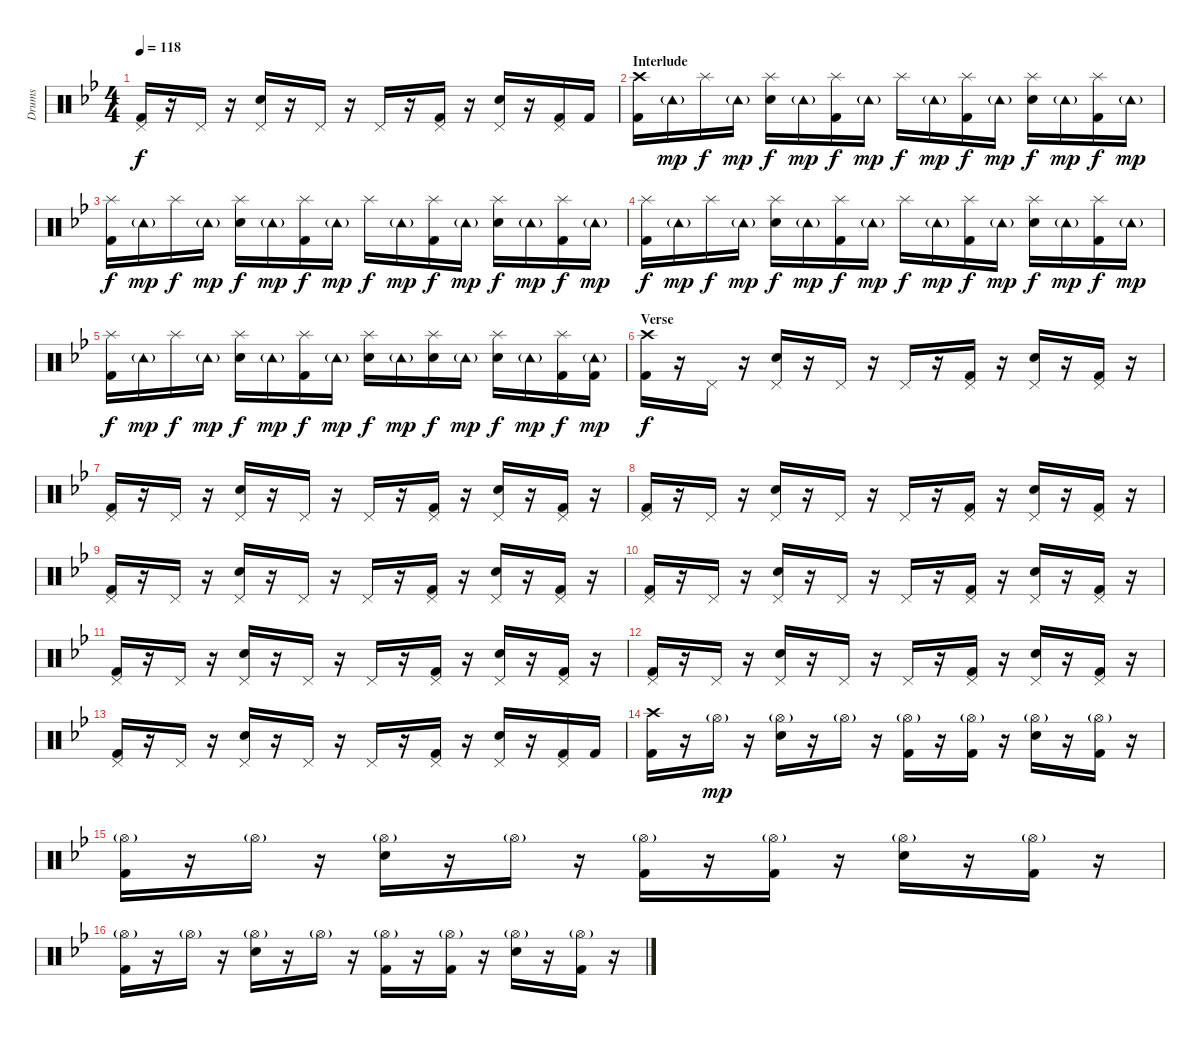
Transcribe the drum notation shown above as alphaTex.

\track ("Drums" "Drums") {instrument percussion}
\staff {score}
\articulation defaults
\ts (4 4)
\tempo 118
\clef neutral
\ks bb
("Pedal Hi-Hat (hit)" "Kick (hit) 2").16{dy f} r.16 "Pedal Hi-Hat (hit)".16 r.16 ("Pedal Hi-Hat (hit)" "Electric Snare (hit)").16 r.16 "Pedal Hi-Hat (hit)".16 r.16 "Pedal Hi-Hat (hit)".16 r.16 ("Pedal Hi-Hat (hit)" "Kick (hit) 2").16 r.16 ("Pedal Hi-Hat (hit)" "Electric Snare (hit)").16 r.16 ("Pedal Hi-Hat (hit)" "Kick (hit) 2").16 "Kick (hit) 2".16 |
\section ("" "Interlude")
("Crash high (hit)" "Kick (hit) 2").16 "Tambourine (hit)"{g}.16{dy mp} "Splash (hit)".16{dy f} "Tambourine (hit)"{g}.16{dy mp} ("Splash (hit)" "Electric Snare (hit)").16{dy f} "Tambourine (hit)"{g}.16{dy mp} ("Splash (hit)" "Kick (hit) 2").16{dy f} "Tambourine (hit)"{g}.16{dy mp} "Splash (hit)".16{dy f} "Tambourine (hit)"{g}.16{dy mp} ("Splash (hit)" "Kick (hit) 2").16{dy f} "Tambourine (hit)"{g}.16{dy mp} ("Splash (hit)" "Electric Snare (hit)").16{dy f} "Tambourine (hit)"{g}.16{dy mp} ("Splash (hit)" "Kick (hit) 2").16{dy f} "Tambourine (hit)"{g}.16{dy mp} |
("Splash (hit)" "Kick (hit) 2").16{dy f} "Tambourine (hit)"{g}.16{dy mp} "Splash (hit)".16{dy f} "Tambourine (hit)"{g}.16{dy mp} ("Splash (hit)" "Electric Snare (hit)").16{dy f} "Tambourine (hit)"{g}.16{dy mp} ("Splash (hit)" "Kick (hit) 2").16{dy f} "Tambourine (hit)"{g}.16{dy mp} "Splash (hit)".16{dy f} "Tambourine (hit)"{g}.16{dy mp} ("Splash (hit)" "Kick (hit) 2").16{dy f} "Tambourine (hit)"{g}.16{dy mp} ("Splash (hit)" "Electric Snare (hit)").16{dy f} "Tambourine (hit)"{g}.16{dy mp} ("Splash (hit)" "Kick (hit) 2").16{dy f} "Tambourine (hit)"{g}.16{dy mp} |
("Splash (hit)" "Kick (hit) 2").16{dy f} "Tambourine (hit)"{g}.16{dy mp} "Splash (hit)".16{dy f} "Tambourine (hit)"{g}.16{dy mp} ("Splash (hit)" "Electric Snare (hit)").16{dy f} "Tambourine (hit)"{g}.16{dy mp} ("Splash (hit)" "Kick (hit) 2").16{dy f} "Tambourine (hit)"{g}.16{dy mp} "Splash (hit)".16{dy f} "Tambourine (hit)"{g}.16{dy mp} ("Splash (hit)" "Kick (hit) 2").16{dy f} "Tambourine (hit)"{g}.16{dy mp} ("Splash (hit)" "Electric Snare (hit)").16{dy f} "Tambourine (hit)"{g}.16{dy mp} ("Splash (hit)" "Kick (hit) 2").16{dy f} "Tambourine (hit)"{g}.16{dy mp} |
("Splash (hit)" "Kick (hit) 2").16{dy f} "Tambourine (hit)"{g}.16{dy mp} "Splash (hit)".16{dy f} "Tambourine (hit)"{g}.16{dy mp} ("Splash (hit)" "Electric Snare (hit)").16{dy f} "Tambourine (hit)"{g}.16{dy mp} ("Splash (hit)" "Kick (hit) 2").16{dy f} "Tambourine (hit)"{g}.16{dy mp} ("Splash (hit)" "Electric Snare (hit)").16{dy f} "Tambourine (hit)"{g}.16{dy mp} ("Splash (hit)" "Electric Snare (hit)").16{dy f} "Tambourine (hit)"{g}.16{dy mp} ("Splash (hit)" "Electric Snare (hit)").16{dy f} "Tambourine (hit)"{g}.16{dy mp} ("Splash (hit)" "Kick (hit) 2").16{dy f} ("Tambourine (hit)"{g} "Kick (hit) 2").16{dy mp} |
\section ("" "Verse")
("Crash high (hit)" "Kick (hit) 2").16{dy f} r.16 "Pedal Hi-Hat (hit)".16 r.16 ("Pedal Hi-Hat (hit)" "Electric Snare (hit)").16 r.16 "Pedal Hi-Hat (hit)".16 r.16 "Pedal Hi-Hat (hit)".16 r.16 ("Pedal Hi-Hat (hit)" "Kick (hit) 2").16 r.16 ("Pedal Hi-Hat (hit)" "Electric Snare (hit)").16 r.16 ("Pedal Hi-Hat (hit)" "Kick (hit) 2").16 r.16 |
("Pedal Hi-Hat (hit)" "Kick (hit) 2").16 r.16 "Pedal Hi-Hat (hit)".16 r.16 ("Pedal Hi-Hat (hit)" "Electric Snare (hit)").16 r.16 "Pedal Hi-Hat (hit)".16 r.16 "Pedal Hi-Hat (hit)".16 r.16 ("Pedal Hi-Hat (hit)" "Kick (hit) 2").16 r.16 ("Pedal Hi-Hat (hit)" "Electric Snare (hit)").16 r.16 ("Pedal Hi-Hat (hit)" "Kick (hit) 2").16 r.16 |
("Pedal Hi-Hat (hit)" "Kick (hit) 2").16 r.16 "Pedal Hi-Hat (hit)".16 r.16 ("Pedal Hi-Hat (hit)" "Electric Snare (hit)").16 r.16 "Pedal Hi-Hat (hit)".16 r.16 "Pedal Hi-Hat (hit)".16 r.16 ("Pedal Hi-Hat (hit)" "Kick (hit) 2").16 r.16 ("Pedal Hi-Hat (hit)" "Electric Snare (hit)").16 r.16 ("Pedal Hi-Hat (hit)" "Kick (hit) 2").16 r.16 |
("Pedal Hi-Hat (hit)" "Kick (hit) 2").16 r.16 "Pedal Hi-Hat (hit)".16 r.16 ("Pedal Hi-Hat (hit)" "Electric Snare (hit)").16 r.16 "Pedal Hi-Hat (hit)".16 r.16 "Pedal Hi-Hat (hit)".16 r.16 ("Pedal Hi-Hat (hit)" "Kick (hit) 2").16 r.16 ("Pedal Hi-Hat (hit)" "Electric Snare (hit)").16 r.16 ("Pedal Hi-Hat (hit)" "Kick (hit) 2").16 r.16 |
("Pedal Hi-Hat (hit)" "Kick (hit) 2").16 r.16 "Pedal Hi-Hat (hit)".16 r.16 ("Pedal Hi-Hat (hit)" "Electric Snare (hit)").16 r.16 "Pedal Hi-Hat (hit)".16 r.16 "Pedal Hi-Hat (hit)".16 r.16 ("Pedal Hi-Hat (hit)" "Kick (hit) 2").16 r.16 ("Pedal Hi-Hat (hit)" "Electric Snare (hit)").16 r.16 ("Pedal Hi-Hat (hit)" "Kick (hit) 2").16 r.16 |
("Pedal Hi-Hat (hit)" "Kick (hit) 2").16 r.16 "Pedal Hi-Hat (hit)".16 r.16 ("Pedal Hi-Hat (hit)" "Electric Snare (hit)").16 r.16 "Pedal Hi-Hat (hit)".16 r.16 "Pedal Hi-Hat (hit)".16 r.16 ("Pedal Hi-Hat (hit)" "Kick (hit) 2").16 r.16 ("Pedal Hi-Hat (hit)" "Electric Snare (hit)").16 r.16 ("Pedal Hi-Hat (hit)" "Kick (hit) 2").16 r.16 |
("Pedal Hi-Hat (hit)" "Kick (hit) 2").16 r.16 "Pedal Hi-Hat (hit)".16 r.16 ("Pedal Hi-Hat (hit)" "Electric Snare (hit)").16 r.16 "Pedal Hi-Hat (hit)".16 r.16 "Pedal Hi-Hat (hit)".16 r.16 ("Pedal Hi-Hat (hit)" "Kick (hit) 2").16 r.16 ("Pedal Hi-Hat (hit)" "Electric Snare (hit)").16 r.16 ("Pedal Hi-Hat (hit)" "Kick (hit) 2").16 r.16 |
("Pedal Hi-Hat (hit)" "Kick (hit) 2").16 r.16 "Pedal Hi-Hat (hit)".16 r.16 ("Pedal Hi-Hat (hit)" "Electric Snare (hit)").16 r.16 "Pedal Hi-Hat (hit)".16 r.16 "Pedal Hi-Hat (hit)".16 r.16 ("Pedal Hi-Hat (hit)" "Kick (hit) 2").16 r.16 ("Pedal Hi-Hat (hit)" "Electric Snare (hit)").16 r.16 ("Pedal Hi-Hat (hit)" "Kick (hit) 2").16 "Kick (hit) 2".16 |
("Crash high (hit)" "Kick (hit) 2").16 r.16 "Hi-Hat (open)"{g}.16{dy mp} r.16 ("Hi-Hat (open)"{g} "Electric Snare (hit)").16 r.16 "Hi-Hat (open)"{g}.16 r.16 ("Hi-Hat (open)"{g} "Kick (hit) 2").16 r.16 ("Hi-Hat (open)"{g} "Kick (hit) 2").16 r.16 ("Hi-Hat (open)"{g} "Electric Snare (hit)").16 r.16 ("Hi-Hat (open)"{g} "Kick (hit) 2").16 r.16 |
("Hi-Hat (open)"{g} "Kick (hit) 2").16 r.16 "Hi-Hat (open)"{g}.16 r.16 ("Hi-Hat (open)"{g} "Electric Snare (hit)").16 r.16 "Hi-Hat (open)"{g}.16 r.16 ("Hi-Hat (open)"{g} "Kick (hit) 2").16 r.16 ("Hi-Hat (open)"{g} "Kick (hit) 2").16 r.16 ("Hi-Hat (open)"{g} "Electric Snare (hit)").16 r.16 ("Hi-Hat (open)"{g} "Kick (hit) 2").16 r.16 |
("Hi-Hat (open)"{g} "Kick (hit) 2").16 r.16 "Hi-Hat (open)"{g}.16 r.16 ("Hi-Hat (open)"{g} "Electric Snare (hit)").16 r.16 "Hi-Hat (open)"{g}.16 r.16 ("Hi-Hat (open)"{g} "Kick (hit) 2").16 r.16 ("Hi-Hat (open)"{g} "Kick (hit) 2").16 r.16 ("Hi-Hat (open)"{g} "Electric Snare (hit)").16 r.16 ("Hi-Hat (open)"{g} "Kick (hit) 2").16 r.16
